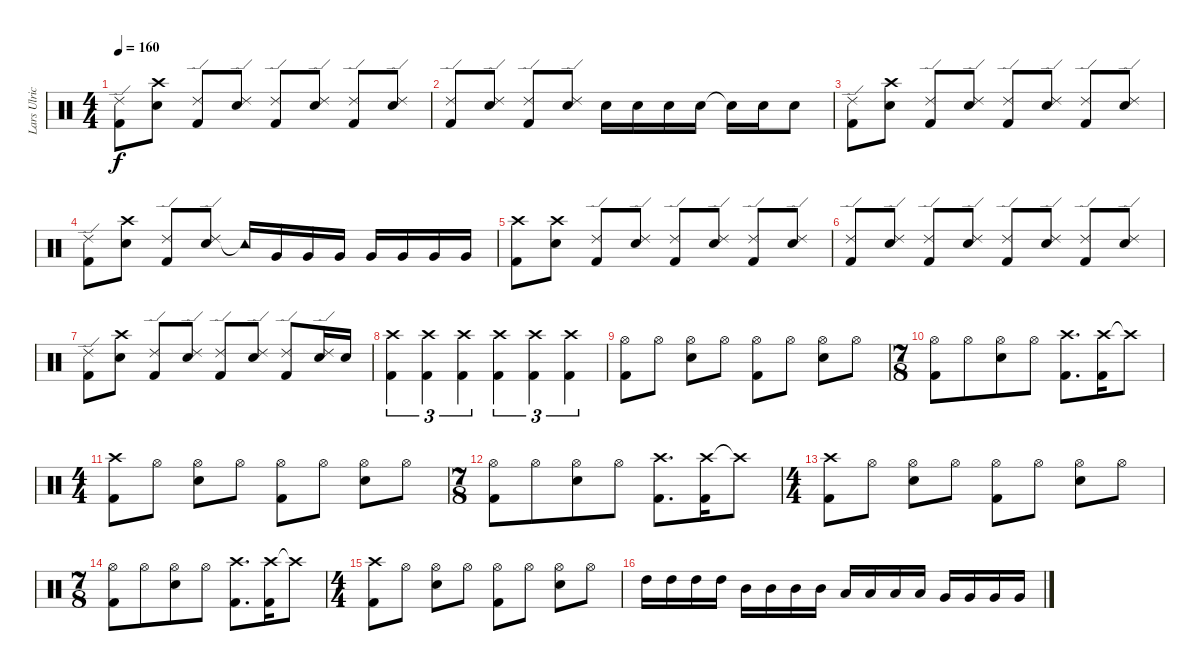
\track ("Lars Ulrich" "Lars Ulric") {instrument percussion}
\staff {score}
\articulation defaults
\ts (4 4)
\tempo 160
\clef neutral
\ks c
("Ride (edge) 2" "Kick (hit) 2").8{dy f} ("Crash high (hit)" "Electric Snare (hit)").8 ("Ride (edge) 2" "Kick (hit) 2").8 ("Ride (edge) 2" "Electric Snare (hit)").8 ("Ride (edge) 2" "Kick (hit) 2").8 ("Ride (edge) 2" "Electric Snare (hit)").8 ("Ride (edge) 2" "Kick (hit) 2").8 ("Ride (edge) 2" "Electric Snare (hit)").8 |
("Ride (edge) 2" "Kick (hit) 2").8 ("Ride (edge) 2" "Electric Snare (hit)").8 ("Ride (edge) 2" "Kick (hit) 2").8 ("Ride (edge) 2" "Electric Snare (hit)").8 "Electric Snare (hit)".16 "Electric Snare (hit)".16 "Electric Snare (hit)".16 "Electric Snare (hit)".16 "Snare (hit)"{t}.16 "Electric Snare (hit)".16 "Electric Snare (hit)".8 |
("Ride (edge) 2" "Kick (hit) 2").8 ("Crash high (hit)" "Electric Snare (hit)").8 ("Ride (edge) 2" "Kick (hit) 2").8 ("Ride (edge) 2" "Electric Snare (hit)").8 ("Ride (edge) 2" "Kick (hit) 2").8 ("Ride (edge) 2" "Electric Snare (hit)").8 ("Ride (edge) 2" "Kick (hit) 2").8 ("Ride (edge) 2" "Electric Snare (hit)").8 |
("Ride (edge) 2" "Kick (hit) 2").8 ("Crash high (hit)" "Electric Snare (hit)").8 ("Ride (edge) 2" "Kick (hit) 2").8 ("Ride (edge) 2" "Electric Snare (hit)").8 "Tambourine (hit)"{t}.16 "Very Low Tom (hit)".16 "Very Low Tom (hit)".16 "Very Low Tom (hit)".16 "Very Low Tom (hit)".16 "Very Low Tom (hit)".16 "Very Low Tom (hit)".16 "Very Low Tom (hit)".16 |
("Crash high (hit)" "Kick (hit) 2").8 ("Crash high (hit)" "Electric Snare (hit)").8 ("Ride (edge) 2" "Kick (hit) 2").8 ("Ride (edge) 2" "Electric Snare (hit)").8 ("Ride (edge) 2" "Kick (hit) 2").8 ("Ride (edge) 2" "Electric Snare (hit)").8 ("Ride (edge) 2" "Kick (hit) 2").8 ("Ride (edge) 2" "Electric Snare (hit)").8 |
("Ride (edge) 2" "Kick (hit) 2").8 ("Ride (edge) 2" "Electric Snare (hit)").8 ("Ride (edge) 2" "Kick (hit) 2").8 ("Ride (edge) 2" "Electric Snare (hit)").8 ("Ride (edge) 2" "Kick (hit) 2").8 ("Ride (edge) 2" "Electric Snare (hit)").8 ("Ride (edge) 2" "Kick (hit) 2").8 ("Ride (edge) 2" "Electric Snare (hit)").8 |
("Ride (edge) 2" "Kick (hit) 2").8 ("Crash high (hit)" "Electric Snare (hit)").8 ("Ride (edge) 2" "Kick (hit) 2").8 ("Ride (edge) 2" "Electric Snare (hit)").8 ("Ride (edge) 2" "Kick (hit) 2").8 ("Ride (edge) 2" "Electric Snare (hit)").8 ("Ride (edge) 2" "Kick (hit) 2").8 ("Ride (edge) 2" "Electric Snare (hit)").16 "Electric Snare (hit)".16 |
("Crash high (hit)" "Kick (hit) 2").4{tu (3 2)} ("Crash high (hit)" "Kick (hit) 2").4{tu (3 2)} ("Crash high (hit)" "Kick (hit) 2").4{tu (3 2)} ("Crash high (hit)" "Kick (hit) 2").4{tu (3 2)} ("Crash high (hit)" "Kick (hit) 2").4{tu (3 2)} ("Crash high (hit)" "Kick (hit) 2").4{tu (3 2)} |
("Hi-Hat (open)" "Kick (hit) 2").8 "Hi-Hat (open)".8 ("Hi-Hat (open)" "Electric Snare (hit)").8 "Hi-Hat (open)".8 ("Hi-Hat (open)" "Kick (hit) 2").8 "Hi-Hat (open)".8 ("Hi-Hat (open)" "Electric Snare (hit)").8 "Hi-Hat (open)".8 |
\ts (7 8)
("Hi-Hat (open)" "Kick (hit) 2").8 "Hi-Hat (open)".8 ("Hi-Hat (open)" "Electric Snare (hit)").8 "Hi-Hat (open)".8 ("Crash high (hit)" "Kick (hit) 2").8{d} ("Crash high (hit)" "Kick (hit) 2").16 "Crash high (hit)"{t}.8 |
\ts (4 4)
("Crash high (hit)" "Kick (hit) 2").8 "Hi-Hat (open)".8 ("Hi-Hat (open)" "Electric Snare (hit)").8 "Hi-Hat (open)".8 ("Hi-Hat (open)" "Kick (hit) 2").8 "Hi-Hat (open)".8 ("Hi-Hat (open)" "Electric Snare (hit)").8 "Hi-Hat (open)".8 |
\ts (7 8)
("Hi-Hat (open)" "Kick (hit) 2").8 "Hi-Hat (open)".8 ("Hi-Hat (open)" "Electric Snare (hit)").8 "Hi-Hat (open)".8 ("Crash high (hit)" "Kick (hit) 2").8{d} ("Crash high (hit)" "Kick (hit) 2").16 "Crash high (hit)"{t}.8 |
\ts (4 4)
("Crash high (hit)" "Kick (hit) 2").8 "Hi-Hat (open)".8 ("Hi-Hat (open)" "Electric Snare (hit)").8 "Hi-Hat (open)".8 ("Hi-Hat (open)" "Kick (hit) 2").8 "Hi-Hat (open)".8 ("Hi-Hat (open)" "Electric Snare (hit)").8 "Hi-Hat (open)".8 |
\ts (7 8)
("Hi-Hat (open)" "Kick (hit) 2").8 "Hi-Hat (open)".8 ("Hi-Hat (open)" "Electric Snare (hit)").8 "Hi-Hat (open)".8 ("Crash high (hit)" "Kick (hit) 2").8{d} ("Crash high (hit)" "Kick (hit) 2").16 "Crash high (hit)"{t}.8 |
\ts (4 4)
("Crash high (hit)" "Kick (hit) 2").8 "Hi-Hat (open)".8 ("Hi-Hat (open)" "Electric Snare (hit)").8 "Hi-Hat (open)".8 ("Hi-Hat (open)" "Kick (hit) 2").8 "Hi-Hat (open)".8 ("Hi-Hat (open)" "Electric Snare (hit)").8 "Hi-Hat (open)".8{balance 0} |
"High Tom (hit)".16{balance 16} "High Tom (hit)".16 "High Tom (hit)".16 "High Tom (hit)".16 "Mid Tom (hit)".16 "Mid Tom (hit)".16 "Mid Tom (hit)".16 "Mid Tom (hit)".16 "Low Tom (hit)".16 "Low Tom (hit)".16 "Low Tom (hit)".16 "Low Tom (hit)".16 "Very Low Tom (hit)".16 "Very Low Tom (hit)".16 "Very Low Tom (hit)".16 "Very Low Tom (hit)".16
